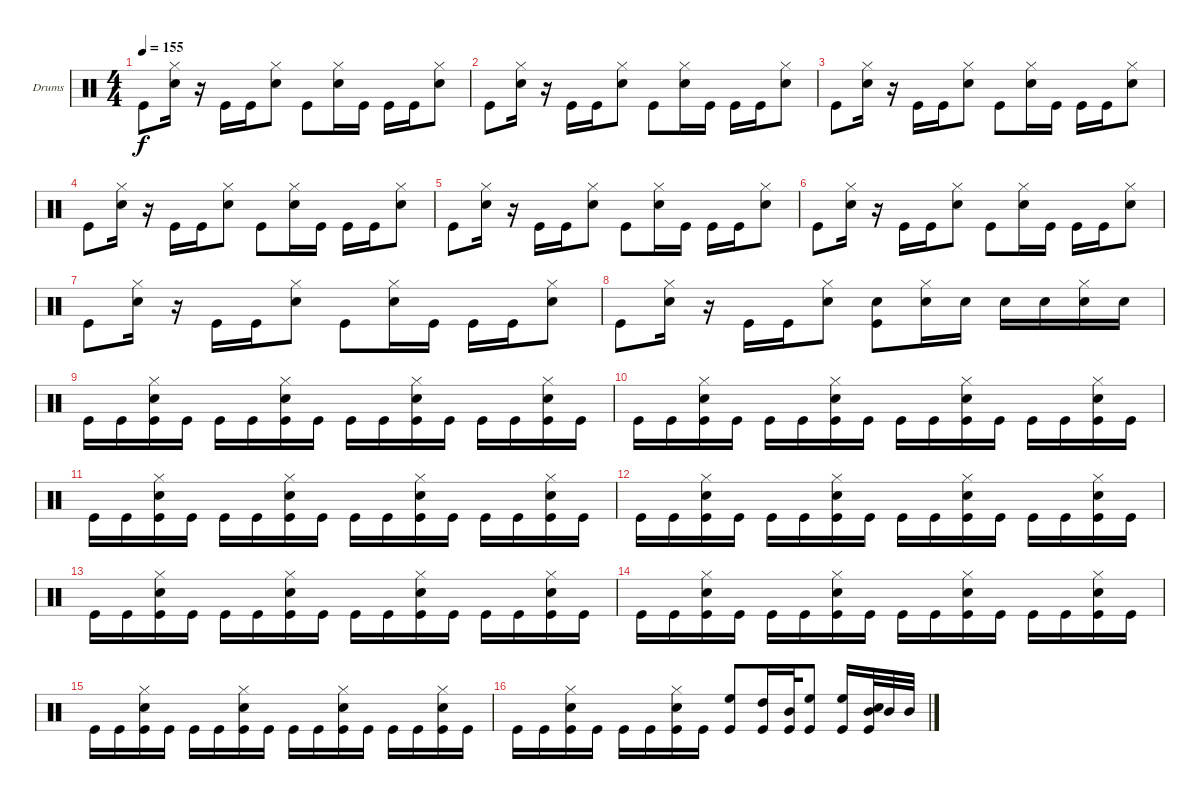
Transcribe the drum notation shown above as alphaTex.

\defaultSystemsLayout 4
\bracketExtendMode groupsimilarinstruments
\firstSystemTrackNameOrientation horizontal
\otherSystemsTrackNameOrientation horizontal
\track ("Drumkit" "Drums") {instrument percussion}
\staff {score}
\articulation defaults
\ts (4 4)
\tempo 155
\clef neutral
\scale
0.474178
\ks c "Kick (hit)".8{dy f}
("Snare (hit) 2" "Hi-Hat (closed)").16 r.16 "Kick (hit)".16 "Kick (hit)".16 ("Snare (hit) 2" "Hi-Hat (closed)").8 "Kick (hit)".8 ("Snare (hit) 2" "Hi-Hat (closed)").16 "Kick (hit)".16 "Kick (hit)".16 "Kick (hit)".16 ("Snare (hit) 2" "Hi-Hat (closed)").8 |
\scale
0.262911 "Kick (hit)".8 ("Snare (hit) 2" "Hi-Hat (closed)").16 r.16 "Kick (hit)".16 "Kick (hit)".16 ("Snare (hit) 2" "Hi-Hat (closed)").8 "Kick (hit)".8 ("Snare (hit) 2" "Hi-Hat (closed)").16 "Kick (hit)".16 "Kick (hit)".16 "Kick (hit)".16 ("Snare (hit) 2" "Hi-Hat (closed)").8 |
\scale
0.262911 "Kick (hit)".8 ("Snare (hit) 2" "Hi-Hat (closed)").16 r.16 "Kick (hit)".16 "Kick (hit)".16 ("Snare (hit) 2" "Hi-Hat (closed)").8 "Kick (hit)".8 ("Snare (hit) 2" "Hi-Hat (closed)").16 "Kick (hit)".16 "Kick (hit)".16 "Kick (hit)".16 ("Snare (hit) 2" "Hi-Hat (closed)").8 |
\scale
0.333333 "Kick (hit)".8 ("Snare (hit) 2" "Hi-Hat (closed)").16 r.16 "Kick (hit)".16 "Kick (hit)".16 ("Snare (hit) 2" "Hi-Hat (closed)").8 "Kick (hit)".8 ("Snare (hit) 2" "Hi-Hat (closed)").16 "Kick (hit)".16 "Kick (hit)".16 "Kick (hit)".16 ("Snare (hit) 2" "Hi-Hat (closed)").8 |
\scale
0.333333 "Kick (hit)".8 ("Snare (hit) 2" "Hi-Hat (closed)").16 r.16 "Kick (hit)".16 "Kick (hit)".16 ("Snare (hit) 2" "Hi-Hat (closed)").8 "Kick (hit)".8 ("Snare (hit) 2" "Hi-Hat (closed)").16 "Kick (hit)".16 "Kick (hit)".16 "Kick (hit)".16 ("Snare (hit) 2" "Hi-Hat (closed)").8 |
\scale
0.333333 "Kick (hit)".8 ("Snare (hit) 2" "Hi-Hat (closed)").16 r.16 "Kick (hit)".16 "Kick (hit)".16 ("Snare (hit) 2" "Hi-Hat (closed)").8 "Kick (hit)".8 ("Snare (hit) 2" "Hi-Hat (closed)").16 "Kick (hit)".16 "Kick (hit)".16 "Kick (hit)".16 ("Snare (hit) 2" "Hi-Hat (closed)").8 |
\scale
0.333333 "Kick (hit)".8 ("Snare (hit) 2" "Hi-Hat (closed)").16 r.16 "Kick (hit)".16 "Kick (hit)".16 ("Snare (hit) 2" "Hi-Hat (closed)").8 "Kick (hit)".8 ("Snare (hit) 2" "Hi-Hat (closed)").16 "Kick (hit)".16 "Kick (hit)".16 "Kick (hit)".16 ("Snare (hit) 2" "Hi-Hat (closed)").8 |
\scale
0.333333 "Kick (hit)".8 ("Snare (hit) 2" "Hi-Hat (closed)").16 r.16 "Kick (hit)".16 "Kick (hit)".16 ("Snare (hit) 2" "Hi-Hat (closed)").8 ("Kick (hit)" "Snare (hit) 2").8 ("Snare (hit) 2" "Hi-Hat (closed)").16 "Snare (hit) 2".16 "Snare (hit) 2".16 "Snare (hit) 2".16 ("Snare (hit) 2" "Hi-Hat (closed)").16 "Snare (hit) 2".16 |
\scale
0.333333 "Kick (hit)".16 "Kick (hit)".16 ("Kick (hit)" "Snare (hit) 2" "Hi-Hat (closed)").16 "Kick (hit)".16 "Kick (hit)".16 "Kick (hit)".16 ("Kick (hit)" "Snare (hit) 2" "Hi-Hat (closed)").16 "Kick (hit)".16 "Kick (hit)".16 "Kick (hit)".16 ("Kick (hit)" "Snare (hit) 2" "Hi-Hat (closed)").16 "Kick (hit)".16 "Kick (hit)".16 "Kick (hit)".16 ("Kick (hit)" "Snare (hit) 2" "Hi-Hat (closed)").16 "Kick (hit)".16 |
\scale
0.333333 "Kick (hit)".16 "Kick (hit)".16 ("Kick (hit)" "Snare (hit) 2" "Hi-Hat (closed)").16 "Kick (hit)".16 "Kick (hit)".16 "Kick (hit)".16 ("Kick (hit)" "Snare (hit) 2" "Hi-Hat (closed)").16 "Kick (hit)".16 "Kick (hit)".16 "Kick (hit)".16 ("Kick (hit)" "Snare (hit) 2" "Hi-Hat (closed)").16 "Kick (hit)".16 "Kick (hit)".16 "Kick (hit)".16 ("Kick (hit)" "Snare (hit) 2" "Hi-Hat (closed)").16 "Kick (hit)".16 |
\scale
0.333333 "Kick (hit)".16 "Kick (hit)".16 ("Kick (hit)" "Snare (hit) 2" "Hi-Hat (closed)").16 "Kick (hit)".16 "Kick (hit)".16 "Kick (hit)".16 ("Kick (hit)" "Snare (hit) 2" "Hi-Hat (closed)").16 "Kick (hit)".16 "Kick (hit)".16 "Kick (hit)".16 ("Kick (hit)" "Snare (hit) 2" "Hi-Hat (closed)").16 "Kick (hit)".16 "Kick (hit)".16 "Kick (hit)".16 ("Kick (hit)" "Snare (hit) 2" "Hi-Hat (closed)").16 "Kick (hit)".16 |
\scale
0.333333 "Kick (hit)".16 "Kick (hit)".16 ("Kick (hit)" "Snare (hit) 2" "Hi-Hat (closed)").16 "Kick (hit)".16 "Kick (hit)".16 "Kick (hit)".16 ("Kick (hit)" "Snare (hit) 2" "Hi-Hat (closed)").16 "Kick (hit)".16 "Kick (hit)".16 "Kick (hit)".16 ("Kick (hit)" "Snare (hit) 2" "Hi-Hat (closed)").16 "Kick (hit)".16 "Kick (hit)".16 "Kick (hit)".16 ("Kick (hit)" "Snare (hit) 2" "Hi-Hat (closed)").16 "Kick (hit)".16 |
\scale
0.333333 "Kick (hit)".16 "Kick (hit)".16 ("Kick (hit)" "Snare (hit) 2" "Hi-Hat (closed)").16 "Kick (hit)".16 "Kick (hit)".16 "Kick (hit)".16 ("Kick (hit)" "Snare (hit) 2" "Hi-Hat (closed)").16 "Kick (hit)".16 "Kick (hit)".16 "Kick (hit)".16 ("Kick (hit)" "Snare (hit) 2" "Hi-Hat (closed)").16 "Kick (hit)".16 "Kick (hit)".16 "Kick (hit)".16 ("Kick (hit)" "Snare (hit) 2" "Hi-Hat (closed)").16 "Kick (hit)".16 |
\scale
0.333333 "Kick (hit)".16 "Kick (hit)".16 ("Kick (hit)" "Snare (hit) 2" "Hi-Hat (closed)").16 "Kick (hit)".16 "Kick (hit)".16 "Kick (hit)".16 ("Kick (hit)" "Snare (hit) 2" "Hi-Hat (closed)").16 "Kick (hit)".16 "Kick (hit)".16 "Kick (hit)".16 ("Kick (hit)" "Snare (hit) 2" "Hi-Hat (closed)").16 "Kick (hit)".16 "Kick (hit)".16 "Kick (hit)".16 ("Kick (hit)" "Snare (hit) 2" "Hi-Hat (closed)").16 "Kick (hit)".16 |
\scale
0.333333 "Kick (hit)".16 "Kick (hit)".16 ("Kick (hit)" "Snare (hit) 2" "Hi-Hat (closed)").16 "Kick (hit)".16 "Kick (hit)".16 "Kick (hit)".16 ("Kick (hit)" "Snare (hit) 2" "Hi-Hat (closed)").16 "Kick (hit)".16 "Kick (hit)".16 "Kick (hit)".16 ("Kick (hit)" "Snare (hit) 2" "Hi-Hat (closed)").16 "Kick (hit)".16 "Kick (hit)".16 "Kick (hit)".16 ("Kick (hit)" "Snare (hit) 2" "Hi-Hat (closed)").16 "Kick (hit)".16 |
\scale
0.333333 "Kick (hit)".16 "Kick (hit)".16 ("Kick (hit)" "Snare (hit) 2" "Hi-Hat (closed)").16 "Kick (hit)".16 "Kick (hit)".16 "Kick (hit)".16 ("Kick (hit)" "Snare (hit) 2" "Hi-Hat (closed)").16 "Kick (hit)".16 ("Kick (hit)" "High Floor Tom (hit)").8 ("Kick (hit)" "High Tom (hit)").16 ("Kick (hit)" "Mid Tom (hit)").32 ("Kick (hit)" "High Floor Tom (hit)").8 ("Kick (hit)" "High Floor Tom (hit)").16 ("Kick (hit)" "Snare (hit) 2" "Mid Tom (hit)").32 "Mid Tom (hit)".32 "Mid Tom (hit)".32
